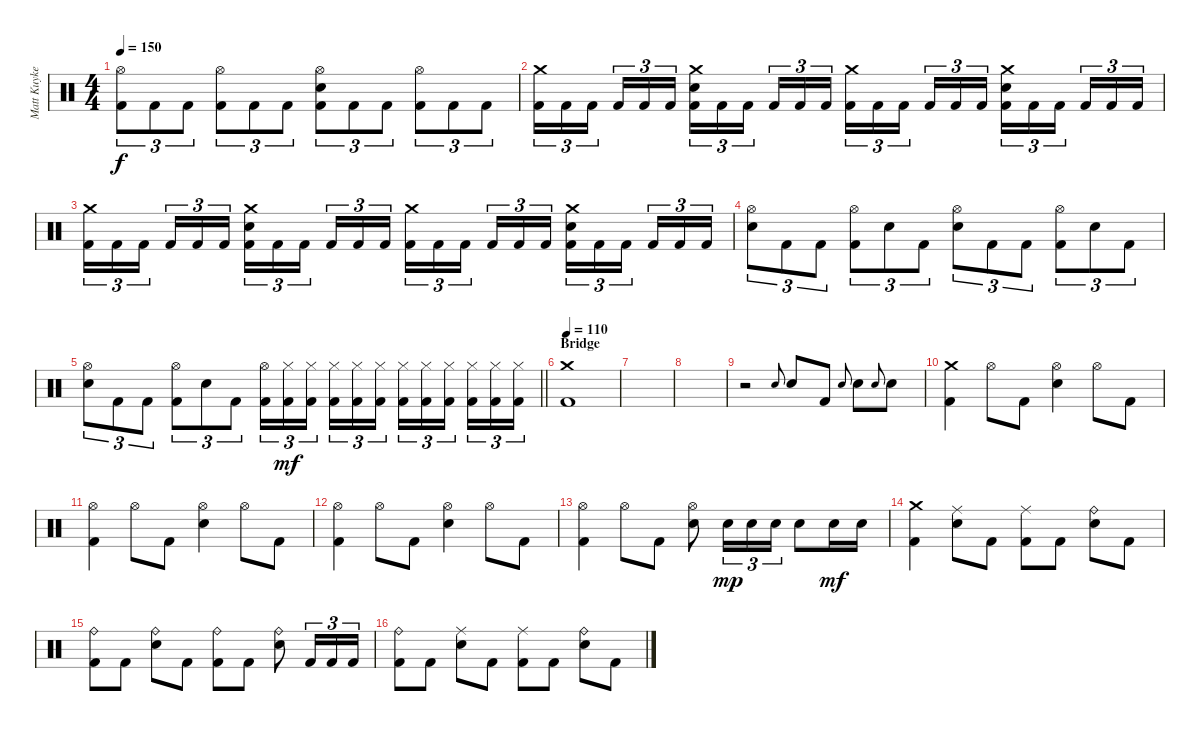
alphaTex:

\track ("Matt Kuykendall" "Matt Kuyke") {instrument percussion}
\staff {score}
\articulation defaults
\ts (4 4)
\tempo 150
\clef neutral
\ks c
("Hi-Hat (open)" "Kick (hit) 2").8{tu (3 2) dy f} "Kick (hit) 2".8{tu (3 2)} "Kick (hit) 2".8{tu (3 2)} ("Hi-Hat (open)" "Kick (hit) 2").8{tu (3 2)} "Kick (hit) 2".8{tu (3 2)} "Kick (hit) 2".8{tu (3 2)} ("Hi-Hat (open)" "Electric Snare (hit)" "Kick (hit) 2").8{tu (3 2)} "Kick (hit) 2".8{tu (3 2)} "Kick (hit) 2".8{tu (3 2)} ("Hi-Hat (open)" "Kick (hit) 2").8{tu (3 2)} "Kick (hit) 2".8{tu (3 2)} "Kick (hit) 2".8{tu (3 2)} |
("Crash medium (hit)" "Kick (hit) 2").16{tu (3 2)} "Kick (hit) 2".16{tu (3 2)} "Kick (hit) 2".16{tu (3 2) beam splitsecondary} "Kick (hit) 2".16{tu (3 2)} "Kick (hit) 2".16{tu (3 2)} "Kick (hit) 2".16{tu (3 2)} ("Crash medium (hit)" "Electric Snare (hit)" "Kick (hit) 2").16{tu (3 2)} "Kick (hit) 2".16{tu (3 2)} "Kick (hit) 2".16{tu (3 2) beam splitsecondary} "Kick (hit) 2".16{tu (3 2)} "Kick (hit) 2".16{tu (3 2)} "Kick (hit) 2".16{tu (3 2)} ("Crash medium (hit)" "Kick (hit) 2").16{tu (3 2)} "Kick (hit) 2".16{tu (3 2)} "Kick (hit) 2".16{tu (3 2) beam splitsecondary} "Kick (hit) 2".16{tu (3 2)} "Kick (hit) 2".16{tu (3 2)} "Kick (hit) 2".16{tu (3 2)} ("Crash medium (hit)" "Electric Snare (hit)" "Kick (hit) 2").16{tu (3 2)} "Kick (hit) 2".16{tu (3 2)} "Kick (hit) 2".16{tu (3 2) beam splitsecondary} "Kick (hit) 2".16{tu (3 2)} "Kick (hit) 2".16{tu (3 2)} "Kick (hit) 2".16{tu (3 2)} |
("Crash medium (hit)" "Kick (hit) 2").16{tu (3 2)} "Kick (hit) 2".16{tu (3 2)} "Kick (hit) 2".16{tu (3 2) beam splitsecondary} "Kick (hit) 2".16{tu (3 2)} "Kick (hit) 2".16{tu (3 2)} "Kick (hit) 2".16{tu (3 2)} ("Crash medium (hit)" "Electric Snare (hit)" "Kick (hit) 2").16{tu (3 2)} "Kick (hit) 2".16{tu (3 2)} "Kick (hit) 2".16{tu (3 2) beam splitsecondary} "Kick (hit) 2".16{tu (3 2)} "Kick (hit) 2".16{tu (3 2)} "Kick (hit) 2".16{tu (3 2)} ("Crash medium (hit)" "Kick (hit) 2").16{tu (3 2)} "Kick (hit) 2".16{tu (3 2)} "Kick (hit) 2".16{tu (3 2) beam splitsecondary} "Kick (hit) 2".16{tu (3 2)} "Kick (hit) 2".16{tu (3 2)} "Kick (hit) 2".16{tu (3 2)} ("Crash medium (hit)" "Electric Snare (hit)" "Kick (hit) 2").16{tu (3 2)} "Kick (hit) 2".16{tu (3 2)} "Kick (hit) 2".16{tu (3 2) beam splitsecondary} "Kick (hit) 2".16{tu (3 2)} "Kick (hit) 2".16{tu (3 2)} "Kick (hit) 2".16{tu (3 2)} |
("Hi-Hat (open)" "Electric Snare (hit)").8{tu (3 2)} "Kick (hit) 2".8{tu (3 2)} "Kick (hit) 2".8{tu (3 2)} ("Hi-Hat (open)" "Kick (hit) 2").8{tu (3 2)} "Electric Snare (hit)".8{tu (3 2)} "Kick (hit) 2".8{tu (3 2)} ("Hi-Hat (open)" "Electric Snare (hit)").8{tu (3 2)} "Kick (hit) 2".8{tu (3 2)} "Kick (hit) 2".8{tu (3 2)} ("Hi-Hat (open)" "Kick (hit) 2").8{tu (3 2)} "Electric Snare (hit)".8{tu (3 2)} "Kick (hit) 2".8{tu (3 2)} |
\barLineRight lightlight
("Hi-Hat (open)" "Electric Snare (hit)").8{tu (3 2)} "Kick (hit) 2".8{tu (3 2)} "Kick (hit) 2".8{tu (3 2)} ("Hi-Hat (open)" "Kick (hit) 2").8{tu (3 2)} "Electric Snare (hit)".8{tu (3 2)} "Kick (hit) 2".8{tu (3 2)} ("Hi-Hat (open)" "Kick (hit) 2").16{tu (3 2)} ("Hi-Hat (closed)" "Kick (hit) 2").16{tu (3 2) dy mf} ("Hi-Hat (closed)" "Kick (hit) 2").16{tu (3 2) beam splitsecondary} ("Hi-Hat (closed)" "Kick (hit) 2").16{tu (3 2)} ("Hi-Hat (closed)" "Kick (hit) 2").16{tu (3 2)} ("Hi-Hat (closed)" "Kick (hit) 2").16{tu (3 2)} ("Hi-Hat (closed)" "Kick (hit) 2").16{tu (3 2)} ("Hi-Hat (closed)" "Kick (hit) 2").16{tu (3 2)} ("Hi-Hat (closed)" "Kick (hit) 2").16{tu (3 2) beam splitsecondary} ("Hi-Hat (closed)" "Kick (hit) 2").16{tu (3 2)} ("Hi-Hat (closed)" "Kick (hit) 2").16{tu (3 2)} ("Hi-Hat (closed)" "Kick (hit) 2").16{tu (3 2)} |
\section ("" "Bridge")
\tempo 110
("Crash medium (hit)" "Kick (hit) 2").1 |
|
|
r.2 "Electric Snare (hit)".8{gr onbeat} "Electric Snare (hit)".8 "Kick (hit) 2".8 "Electric Snare (hit)".8{gr onbeat} "Electric Snare (hit)".8 "Electric Snare (hit)".8{gr onbeat} "Electric Snare (hit)".8 |
("Crash medium (hit)" "Kick (hit) 2").4 "Hi-Hat (open)".8 "Kick (hit) 2".8 ("Hi-Hat (open)" "Electric Snare (hit)").4 "Hi-Hat (open)".8 "Kick (hit) 2".8 |
("Hi-Hat (open)" "Kick (hit) 2").4 "Hi-Hat (open)".8 "Kick (hit) 2".8 ("Hi-Hat (open)" "Electric Snare (hit)").4 "Hi-Hat (open)".8 "Kick (hit) 2".8 |
("Hi-Hat (open)" "Kick (hit) 2").4 "Hi-Hat (open)".8 "Kick (hit) 2".8 ("Hi-Hat (open)" "Electric Snare (hit)").4 "Hi-Hat (open)".8 "Kick (hit) 2".8 |
("Hi-Hat (open)" "Kick (hit) 2").4 "Hi-Hat (open)".8 "Kick (hit) 2".8 ("Hi-Hat (open)" "Electric Snare (hit)").8 "Electric Snare (hit)".16{tu (3 2) dy mp} "Electric Snare (hit)".16{tu (3 2)} "Electric Snare (hit)".16{tu (3 2)} "Electric Snare (hit)".8 "Electric Snare (hit)".16{dy mf} "Electric Snare (hit)".16 |
("Crash medium (hit)" "Kick (hit) 2").4 ("Ride (middle)" "Electric Snare (hit)").8 "Kick (hit) 2".8 ("Ride (middle)" "Kick (hit) 2").8 "Kick (hit) 2".8 ("Ride (bell)" "Electric Snare (hit)").8 "Kick (hit) 2".8 |
("Ride (bell)" "Kick (hit) 2").8 "Kick (hit) 2".8 ("Ride (bell)" "Electric Snare (hit)").8 "Kick (hit) 2".8 ("Ride (bell)" "Kick (hit) 2").8 "Kick (hit) 2".8 ("Ride (bell)" "Electric Snare (hit)").8 "Kick (hit) 2".16{tu (3 2)} "Kick (hit) 2".16{tu (3 2)} "Kick (hit) 2".16{tu (3 2)} |
("Ride (bell)" "Kick (hit) 2").8 "Kick (hit) 2".8 ("Ride (middle)" "Electric Snare (hit)").8 "Kick (hit) 2".8 ("Ride (middle)" "Kick (hit) 2").8 "Kick (hit) 2".8 ("Ride (bell)" "Electric Snare (hit)").8 "Kick (hit) 2".8
